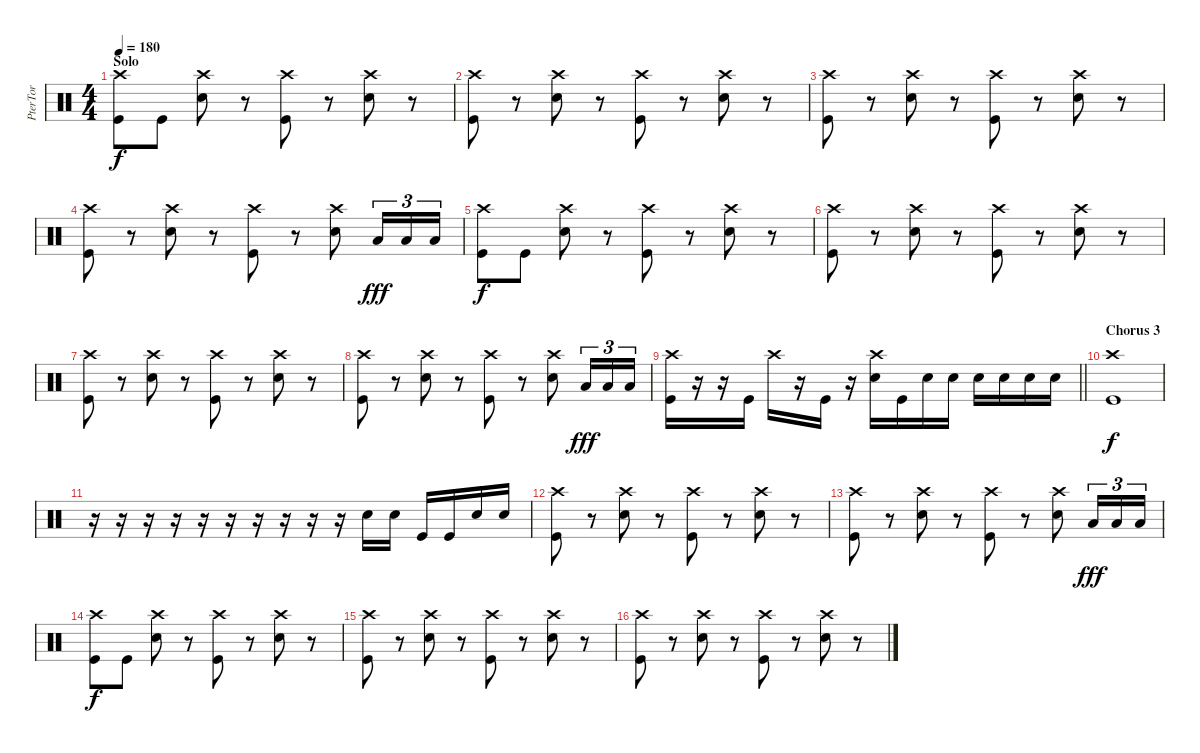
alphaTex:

\track ("PterTor" "PterTor") {instrument percussion}
\staff {score}
\articulation defaults
\ts (4 4)
\section ("" "Solo")
\tempo 180
\clef neutral
\ks c
("Crash high (hit)" "Kick (hit)").8{dy f} "Kick (hit)".8 ("Crash high (hit)" "Electric Snare (hit)").8 r.8 ("Crash high (hit)" "Kick (hit)").8 r.8 ("Crash high (hit)" "Electric Snare (hit)").8 r.8 |
("Crash high (hit)" "Kick (hit)").8 r.8 ("Crash high (hit)" "Electric Snare (hit)").8 r.8 ("Crash high (hit)" "Kick (hit)").8 r.8 ("Crash high (hit)" "Electric Snare (hit)").8 r.8 |
("Crash high (hit)" "Kick (hit)").8 r.8 ("Crash high (hit)" "Electric Snare (hit)").8 r.8 ("Crash high (hit)" "Kick (hit)").8 r.8 ("Crash high (hit)" "Electric Snare (hit)").8 r.8 |
("Crash high (hit)" "Kick (hit)").8 r.8 ("Crash high (hit)" "Electric Snare (hit)").8 r.8 ("Crash high (hit)" "Kick (hit)").8 r.8 ("Crash high (hit)" "Electric Snare (hit)").8 "Low Floor Tom (hit)".16{tu (3 2) dy fff} "Low Floor Tom (hit)".16{tu (3 2)} "Low Floor Tom (hit)".16{tu (3 2)} |
("Crash high (hit)" "Kick (hit)").8{dy f} "Kick (hit)".8 ("Crash high (hit)" "Electric Snare (hit)").8 r.8 ("Crash high (hit)" "Kick (hit)").8 r.8 ("Crash high (hit)" "Electric Snare (hit)").8 r.8 |
("Crash high (hit)" "Kick (hit)").8 r.8 ("Crash high (hit)" "Electric Snare (hit)").8 r.8 ("Crash high (hit)" "Kick (hit)").8 r.8 ("Crash high (hit)" "Electric Snare (hit)").8 r.8 |
("Crash high (hit)" "Kick (hit)").8 r.8 ("Crash high (hit)" "Electric Snare (hit)").8 r.8 ("Crash high (hit)" "Kick (hit)").8 r.8 ("Crash high (hit)" "Electric Snare (hit)").8 r.8 |
("Crash high (hit)" "Kick (hit)").8 r.8 ("Crash high (hit)" "Electric Snare (hit)").8 r.8 ("Crash high (hit)" "Kick (hit)").8 r.8 ("Crash high (hit)" "Electric Snare (hit)").8 "Low Floor Tom (hit)".16{tu (3 2) dy fff} "Low Floor Tom (hit)".16{tu (3 2)} "Low Floor Tom (hit)".16{tu (3 2)} |
\barLineRight lightlight
("Crash high (hit)" "Kick (hit)").16 r.16 r.16 "Kick (hit)".16 "Crash high (hit)".16 r.16 "Kick (hit)".16 r.16 ("Crash high (hit)" "Electric Snare (hit)").16 "Kick (hit)".16 "Electric Snare (hit)".16 "Electric Snare (hit)".16 "Electric Snare (hit)".16 "Electric Snare (hit)".16 "Electric Snare (hit)".16 "Electric Snare (hit)".16 |
\section ("" "Chorus 3")
("Crash high (hit)" "Kick (hit)").1{dy f} |
r.16 r.16 r.16 r.16 r.16 r.16 r.16 r.16 r.16 r.16 "Electric Snare (hit)".16 "Electric Snare (hit)".16 "Kick (hit)".16 "Kick (hit)".16 "Electric Snare (hit)".16 "Electric Snare (hit)".16 |
("Crash high (hit)" "Kick (hit)").8 r.8 ("Crash high (hit)" "Electric Snare (hit)").8 r.8 ("Crash high (hit)" "Kick (hit)").8 r.8 ("Crash high (hit)" "Electric Snare (hit)").8 r.8 |
("Crash high (hit)" "Kick (hit)").8 r.8 ("Crash high (hit)" "Electric Snare (hit)").8 r.8 ("Crash high (hit)" "Kick (hit)").8 r.8 ("Crash high (hit)" "Electric Snare (hit)").8 "Low Floor Tom (hit)".16{tu (3 2) dy fff} "Low Floor Tom (hit)".16{tu (3 2)} "Low Floor Tom (hit)".16{tu (3 2)} |
("Crash high (hit)" "Kick (hit)").8{dy f} "Kick (hit)".8 ("Crash high (hit)" "Electric Snare (hit)").8 r.8 ("Crash high (hit)" "Kick (hit)").8 r.8 ("Crash high (hit)" "Electric Snare (hit)").8 r.8 |
("Crash high (hit)" "Kick (hit)").8 r.8 ("Crash high (hit)" "Electric Snare (hit)").8 r.8 ("Crash high (hit)" "Kick (hit)").8 r.8 ("Crash high (hit)" "Electric Snare (hit)").8 r.8 |
("Crash high (hit)" "Kick (hit)").8 r.8 ("Crash high (hit)" "Electric Snare (hit)").8 r.8 ("Crash high (hit)" "Kick (hit)").8 r.8 ("Crash high (hit)" "Electric Snare (hit)").8 r.8
